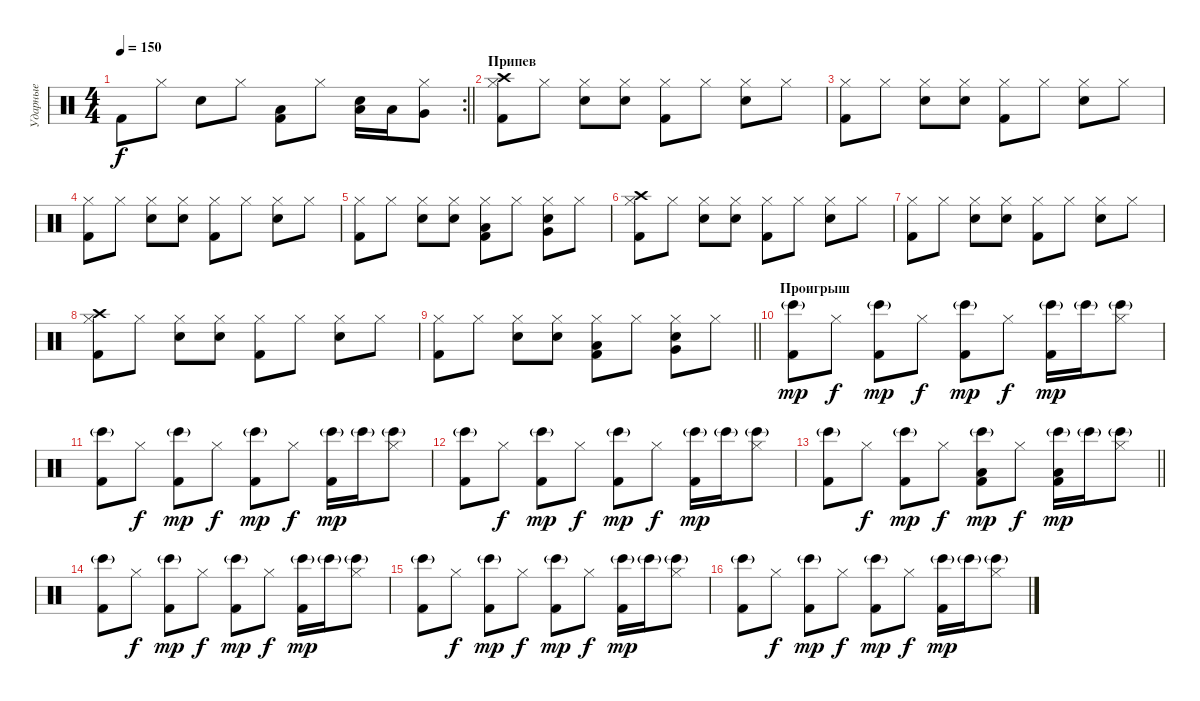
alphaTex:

\track ("Ударные" "Ударные") {instrument percussion}
\staff {score}
\articulation defaults
\rc 2
\ts (4 4)
\tempo 150
\clef neutral
\barLineRight lightlight
\ks c "Kick (hit) 2".8{dy f} "Hi-Hat (closed)".8 "Snare (hit) 2".8 "Hi-Hat (closed)".8
("Kick (hit) 2" "Low Tom (hit)").8 "Hi-Hat (closed)".8 ("Snare (hit) 2" "Low Tom (hit)").16 "Low Tom (hit)".16 ("Hi-Hat (closed)" "Very Low Tom (hit)").8 |
\section ("" "Припев")
("Kick (hit) 2" "Hi-Hat (closed)" "Crash high (hit)").8 "Hi-Hat (closed)".8 ("Snare (hit) 2" "Hi-Hat (closed)").8 ("Snare (hit) 2" "Hi-Hat (closed)").8 ("Kick (hit) 2" "Hi-Hat (closed)").8 "Hi-Hat (closed)".8 ("Snare (hit) 2" "Hi-Hat (closed)").8 "Hi-Hat (closed)".8 |
("Kick (hit) 2" "Hi-Hat (closed)").8 "Hi-Hat (closed)".8 ("Snare (hit) 2" "Hi-Hat (closed)").8 ("Snare (hit) 2" "Hi-Hat (closed)").8 ("Kick (hit) 2" "Hi-Hat (closed)").8 "Hi-Hat (closed)".8 ("Snare (hit) 2" "Hi-Hat (closed)").8 "Hi-Hat (closed)".8 |
("Kick (hit) 2" "Hi-Hat (closed)").8 "Hi-Hat (closed)".8 ("Snare (hit) 2" "Hi-Hat (closed)").8 ("Snare (hit) 2" "Hi-Hat (closed)").8 ("Kick (hit) 2" "Hi-Hat (closed)").8 "Hi-Hat (closed)".8 ("Snare (hit) 2" "Hi-Hat (closed)").8 "Hi-Hat (closed)".8 |
("Kick (hit) 2" "Hi-Hat (closed)").8 "Hi-Hat (closed)".8 ("Snare (hit) 2" "Hi-Hat (closed)").8 ("Snare (hit) 2" "Hi-Hat (closed)").8 ("Kick (hit) 2" "Hi-Hat (closed)" "Low Tom (hit)").8 "Hi-Hat (closed)".8 ("Snare (hit) 2" "Hi-Hat (closed)" "Very Low Tom (hit)").8 "Hi-Hat (closed)".8 |
("Kick (hit) 2" "Hi-Hat (closed)" "Crash high (hit)").8 "Hi-Hat (closed)".8 ("Snare (hit) 2" "Hi-Hat (closed)").8 ("Snare (hit) 2" "Hi-Hat (closed)").8 ("Kick (hit) 2" "Hi-Hat (closed)").8 "Hi-Hat (closed)".8 ("Snare (hit) 2" "Hi-Hat (closed)").8 "Hi-Hat (closed)".8 |
("Kick (hit) 2" "Hi-Hat (closed)").8 "Hi-Hat (closed)".8 ("Snare (hit) 2" "Hi-Hat (closed)").8 ("Snare (hit) 2" "Hi-Hat (closed)").8 ("Kick (hit) 2" "Hi-Hat (closed)").8 "Hi-Hat (closed)".8 ("Snare (hit) 2" "Hi-Hat (closed)").8 "Hi-Hat (closed)".8 |
("Kick (hit) 2" "Hi-Hat (closed)" "Crash high (hit)").8 "Hi-Hat (closed)".8 ("Snare (hit) 2" "Hi-Hat (closed)").8 ("Snare (hit) 2" "Hi-Hat (closed)").8 ("Kick (hit) 2" "Hi-Hat (closed)").8 "Hi-Hat (closed)".8 ("Snare (hit) 2" "Hi-Hat (closed)").8 "Hi-Hat (closed)".8 |
\barLineRight lightlight
("Kick (hit) 2" "Hi-Hat (closed)").8 "Hi-Hat (closed)".8 ("Snare (hit) 2" "Hi-Hat (closed)").8 ("Snare (hit) 2" "Hi-Hat (closed)").8 ("Kick (hit) 2" "Hi-Hat (closed)" "Low Tom (hit)").8 "Hi-Hat (closed)".8 ("Snare (hit) 2" "Hi-Hat (closed)" "Very Low Tom (hit)").8 "Hi-Hat (closed)".8 |
\section ("" "Проигрыш")
("Kick (hit) 2" "Bongo High (hit)"{g}).8{dy mp} "Hi-Hat (closed)".8{dy f} ("Kick (hit) 2" "Bongo High (hit)"{g}).8{dy mp} "Hi-Hat (closed)".8{dy f} ("Kick (hit) 2" "Bongo High (hit)"{g}).8{dy mp} "Hi-Hat (closed)".8{dy f} ("Kick (hit) 2" "Bongo High (hit)"{g}).16{dy mp} "Bongo High (hit)"{g}.16 ("Hi-Hat (closed)" "Bongo High (hit)"{g}).8 |
("Kick (hit) 2" "Bongo High (hit)"{g}).8 "Hi-Hat (closed)".8{dy f} ("Kick (hit) 2" "Bongo High (hit)"{g}).8{dy mp} "Hi-Hat (closed)".8{dy f} ("Kick (hit) 2" "Bongo High (hit)"{g}).8{dy mp} "Hi-Hat (closed)".8{dy f} ("Kick (hit) 2" "Bongo High (hit)"{g}).16{dy mp} "Bongo High (hit)"{g}.16 ("Hi-Hat (closed)" "Bongo High (hit)"{g}).8 |
("Kick (hit) 2" "Bongo High (hit)"{g}).8 "Hi-Hat (closed)".8{dy f} ("Kick (hit) 2" "Bongo High (hit)"{g}).8{dy mp} "Hi-Hat (closed)".8{dy f} ("Kick (hit) 2" "Bongo High (hit)"{g}).8{dy mp} "Hi-Hat (closed)".8{dy f} ("Kick (hit) 2" "Bongo High (hit)"{g}).16{dy mp} "Bongo High (hit)"{g}.16 ("Hi-Hat (closed)" "Bongo High (hit)"{g}).8 |
\barLineRight lightlight
("Kick (hit) 2" "Bongo High (hit)"{g}).8 "Hi-Hat (closed)".8{dy f} ("Kick (hit) 2" "Bongo High (hit)"{g}).8{dy mp} "Hi-Hat (closed)".8{dy f} ("Kick (hit) 2" "Bongo High (hit)"{g} "Low Tom (hit)").8{dy mp} "Hi-Hat (closed)".8{dy f} ("Kick (hit) 2" "Bongo High (hit)"{g} "Low Tom (hit)").16{dy mp} "Bongo High (hit)"{g}.16 ("Hi-Hat (closed)" "Bongo High (hit)"{g}).8 |
("Kick (hit) 2" "Bongo High (hit)"{g}).8 "Hi-Hat (closed)".8{dy f} ("Kick (hit) 2" "Bongo High (hit)"{g}).8{dy mp} "Hi-Hat (closed)".8{dy f} ("Kick (hit) 2" "Bongo High (hit)"{g}).8{dy mp} "Hi-Hat (closed)".8{dy f} ("Kick (hit) 2" "Bongo High (hit)"{g}).16{dy mp} "Bongo High (hit)"{g}.16 ("Hi-Hat (closed)" "Bongo High (hit)"{g}).8 |
("Kick (hit) 2" "Bongo High (hit)"{g}).8 "Hi-Hat (closed)".8{dy f} ("Kick (hit) 2" "Bongo High (hit)"{g}).8{dy mp} "Hi-Hat (closed)".8{dy f} ("Kick (hit) 2" "Bongo High (hit)"{g}).8{dy mp} "Hi-Hat (closed)".8{dy f} ("Kick (hit) 2" "Bongo High (hit)"{g}).16{dy mp} "Bongo High (hit)"{g}.16 ("Hi-Hat (closed)" "Bongo High (hit)"{g}).8 |
("Kick (hit) 2" "Bongo High (hit)"{g}).8 "Hi-Hat (closed)".8{dy f} ("Kick (hit) 2" "Bongo High (hit)"{g}).8{dy mp} "Hi-Hat (closed)".8{dy f} ("Kick (hit) 2" "Bongo High (hit)"{g}).8{dy mp} "Hi-Hat (closed)".8{dy f} ("Kick (hit) 2" "Bongo High (hit)"{g}).16{dy mp} "Bongo High (hit)"{g}.16 ("Hi-Hat (closed)" "Bongo High (hit)"{g}).8
